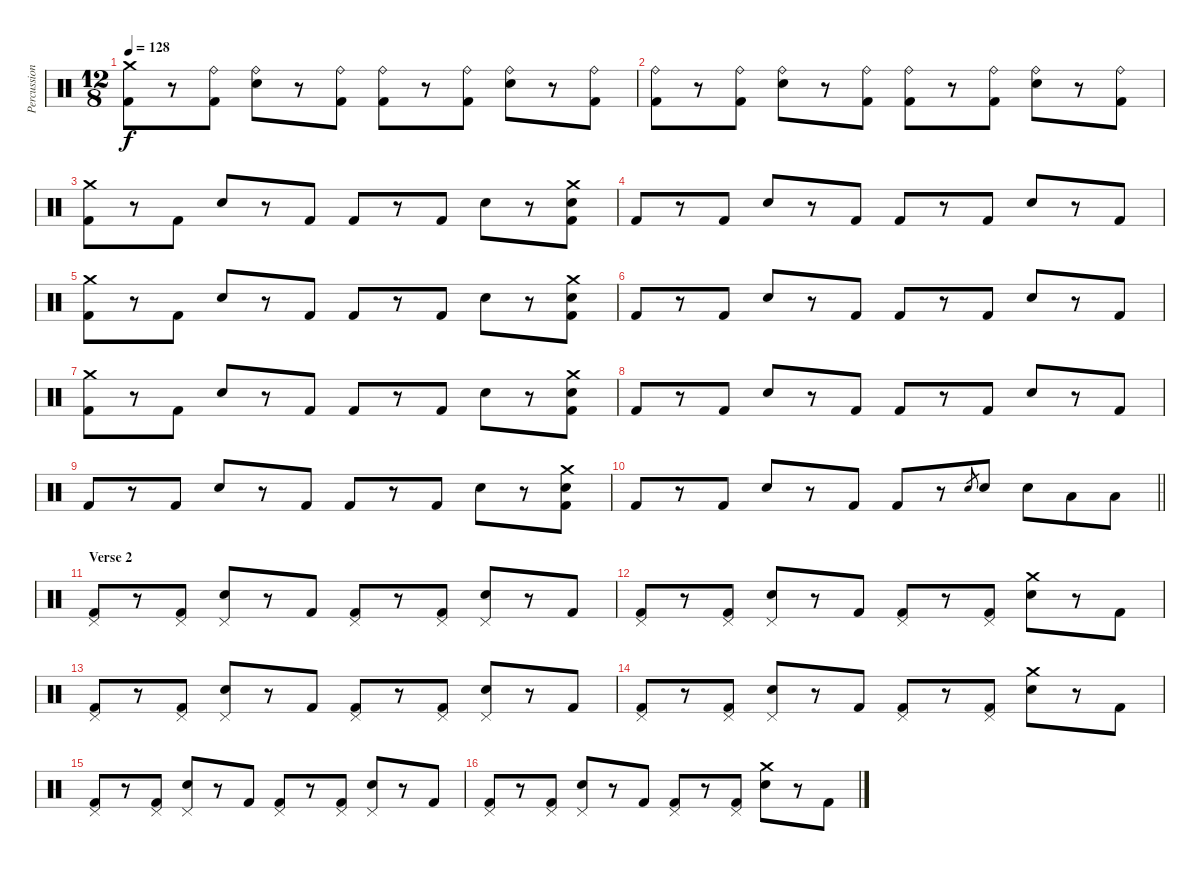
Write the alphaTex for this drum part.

\track ("Percussion" "Percussion") {instrument percussion}
\staff {score}
\articulation defaults
\ts (12 8)
\tempo 128
\clef neutral
\ks c
("Crash medium (hit)" "Kick (hit) 2").8{dy f} r.8 ("Ride (bell)" "Kick (hit) 2").8 ("Ride (bell)" "Snare (hit) 2").8 r.8 ("Ride (bell)" "Kick (hit) 2").8 ("Ride (bell)" "Kick (hit) 2").8 r.8 ("Ride (bell)" "Kick (hit) 2").8 ("Ride (bell)" "Snare (hit) 2").8 r.8 ("Ride (bell)" "Kick (hit) 2").8 |
("Ride (bell)" "Kick (hit) 2").8 r.8 ("Ride (bell)" "Kick (hit) 2").8 ("Ride (bell)" "Snare (hit) 2").8 r.8 ("Ride (bell)" "Kick (hit) 2").8 ("Ride (bell)" "Kick (hit) 2").8 r.8 ("Ride (bell)" "Kick (hit) 2").8 ("Ride (bell)" "Snare (hit) 2").8 r.8 ("Ride (bell)" "Kick (hit) 2").8 |
("Crash medium (hit)" "Kick (hit) 2").8 r.8 "Kick (hit) 2".8 "Snare (hit) 2".8 r.8 "Kick (hit) 2".8 "Kick (hit) 2".8 r.8 "Kick (hit) 2".8 "Snare (hit) 2".8 r.8 ("Crash medium (hit)" "Snare (hit) 2" "Kick (hit) 2").8 |
"Kick (hit) 2".8 r.8 "Kick (hit) 2".8 "Snare (hit) 2".8 r.8 "Kick (hit) 2".8 "Kick (hit) 2".8 r.8 "Kick (hit) 2".8 "Snare (hit) 2".8 r.8 "Kick (hit) 2".8 |
("Crash medium (hit)" "Kick (hit) 2").8 r.8 "Kick (hit) 2".8 "Snare (hit) 2".8 r.8 "Kick (hit) 2".8 "Kick (hit) 2".8 r.8 "Kick (hit) 2".8 "Snare (hit) 2".8 r.8 ("Crash medium (hit)" "Snare (hit) 2" "Kick (hit) 2").8 |
"Kick (hit) 2".8 r.8 "Kick (hit) 2".8 "Snare (hit) 2".8 r.8 "Kick (hit) 2".8 "Kick (hit) 2".8 r.8 "Kick (hit) 2".8 "Snare (hit) 2".8 r.8 "Kick (hit) 2".8 |
("Crash medium (hit)" "Kick (hit) 2").8 r.8 "Kick (hit) 2".8 "Snare (hit) 2".8 r.8 "Kick (hit) 2".8 "Kick (hit) 2".8 r.8 "Kick (hit) 2".8 "Snare (hit) 2".8 r.8 ("Crash medium (hit)" "Snare (hit) 2" "Kick (hit) 2").8 |
"Kick (hit) 2".8 r.8 "Kick (hit) 2".8 "Snare (hit) 2".8 r.8 "Kick (hit) 2".8 "Kick (hit) 2".8 r.8 "Kick (hit) 2".8 "Snare (hit) 2".8 r.8 "Kick (hit) 2".8 |
"Kick (hit) 2".8 r.8 "Kick (hit) 2".8 "Snare (hit) 2".8 r.8 "Kick (hit) 2".8 "Kick (hit) 2".8 r.8 "Kick (hit) 2".8 "Snare (hit) 2".8 r.8 ("Crash medium (hit)" "Snare (hit) 2" "Kick (hit) 2").8 |
\barLineRight lightlight "Kick (hit) 2".8
r.8 "Kick (hit) 2".8 "Snare (hit) 2".8 r.8 "Kick (hit) 2".8 "Kick (hit) 2".8 r.8 "Snare (hit) 2".8{gr} "Snare (hit) 2".8 "Snare (hit) 2".8 "Low Tom (hit)".8 "Low Floor Tom (hit)".8 |
\section ("" "Verse 2")
("Pedal Hi-Hat (hit)" "Kick (hit) 2").8 r.8 ("Pedal Hi-Hat (hit)" "Kick (hit) 2").8 ("Pedal Hi-Hat (hit)" "Snare (hit) 2").8 r.8 "Kick (hit) 2".8 ("Pedal Hi-Hat (hit)" "Kick (hit) 2").8 r.8 ("Pedal Hi-Hat (hit)" "Kick (hit) 2").8 ("Pedal Hi-Hat (hit)" "Snare (hit) 2").8 r.8 "Kick (hit) 2".8 |
("Pedal Hi-Hat (hit)" "Kick (hit) 2").8 r.8 ("Pedal Hi-Hat (hit)" "Kick (hit) 2").8 ("Pedal Hi-Hat (hit)" "Snare (hit) 2").8 r.8 "Kick (hit) 2".8 ("Pedal Hi-Hat (hit)" "Kick (hit) 2").8 r.8 ("Pedal Hi-Hat (hit)" "Kick (hit) 2").8 ("Crash medium (hit)" "Snare (hit) 2").8 r.8 "Kick (hit) 2".8 |
("Pedal Hi-Hat (hit)" "Kick (hit) 2").8 r.8 ("Pedal Hi-Hat (hit)" "Kick (hit) 2").8 ("Pedal Hi-Hat (hit)" "Snare (hit) 2").8 r.8 "Kick (hit) 2".8 ("Pedal Hi-Hat (hit)" "Kick (hit) 2").8 r.8 ("Pedal Hi-Hat (hit)" "Kick (hit) 2").8 ("Pedal Hi-Hat (hit)" "Snare (hit) 2").8 r.8 "Kick (hit) 2".8 |
("Pedal Hi-Hat (hit)" "Kick (hit) 2").8 r.8 ("Pedal Hi-Hat (hit)" "Kick (hit) 2").8 ("Pedal Hi-Hat (hit)" "Snare (hit) 2").8 r.8 "Kick (hit) 2".8 ("Pedal Hi-Hat (hit)" "Kick (hit) 2").8 r.8 ("Pedal Hi-Hat (hit)" "Kick (hit) 2").8 ("Crash medium (hit)" "Snare (hit) 2").8 r.8 "Kick (hit) 2".8 |
("Pedal Hi-Hat (hit)" "Kick (hit) 2").8 r.8 ("Pedal Hi-Hat (hit)" "Kick (hit) 2").8 ("Pedal Hi-Hat (hit)" "Snare (hit) 2").8 r.8 "Kick (hit) 2".8 ("Pedal Hi-Hat (hit)" "Kick (hit) 2").8 r.8 ("Pedal Hi-Hat (hit)" "Kick (hit) 2").8 ("Pedal Hi-Hat (hit)" "Snare (hit) 2").8 r.8 "Kick (hit) 2".8 |
("Pedal Hi-Hat (hit)" "Kick (hit) 2").8 r.8 ("Pedal Hi-Hat (hit)" "Kick (hit) 2").8 ("Pedal Hi-Hat (hit)" "Snare (hit) 2").8 r.8 "Kick (hit) 2".8 ("Pedal Hi-Hat (hit)" "Kick (hit) 2").8 r.8 ("Pedal Hi-Hat (hit)" "Kick (hit) 2").8 ("Crash medium (hit)" "Snare (hit) 2").8 r.8 "Kick (hit) 2".8
